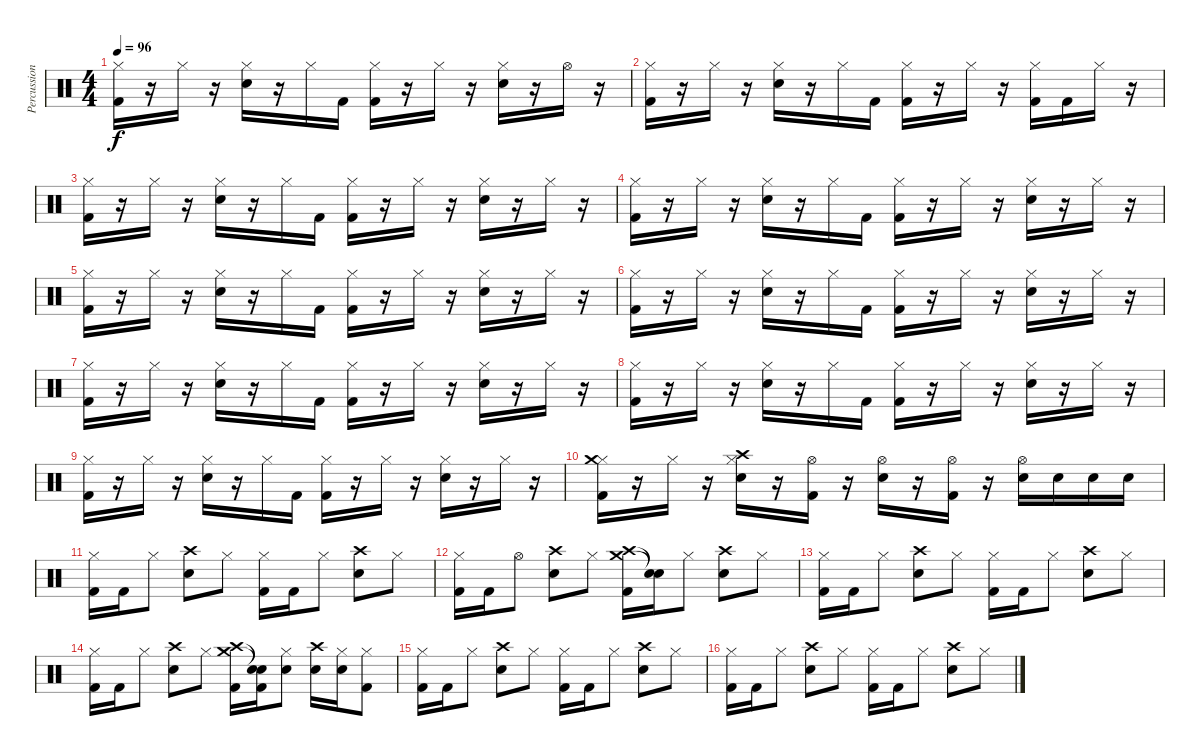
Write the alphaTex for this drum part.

\track ("Percussion" "Percussion") {instrument percussion}
\staff {score}
\articulation defaults
\ts (4 4)
\tempo 96
\clef neutral
\ks c
("Hi-Hat (closed)" "Kick (hit) 2").16{dy f} r.16 "Hi-Hat (closed)".16 r.16 ("Hi-Hat (closed)" "Snare (hit) 2").16 r.16 "Hi-Hat (closed)".16 "Kick (hit) 2".16 ("Hi-Hat (closed)" "Kick (hit) 2").16 r.16 "Hi-Hat (closed)".16 r.16 ("Hi-Hat (closed)" "Snare (hit) 2").16 r.16 "Hi-Hat (open)".16 r.16 |
("Hi-Hat (closed)" "Kick (hit) 2").16 r.16 "Hi-Hat (closed)".16 r.16 ("Hi-Hat (closed)" "Snare (hit) 2").16 r.16 "Hi-Hat (closed)".16 "Kick (hit) 2".16 ("Hi-Hat (closed)" "Kick (hit) 2").16 r.16 "Hi-Hat (closed)".16 r.16 ("Hi-Hat (closed)" "Kick (hit) 2").16 "Kick (hit) 2".16 "Hi-Hat (closed)".16 r.16 |
("Hi-Hat (closed)" "Kick (hit) 2").16 r.16 "Hi-Hat (closed)".16 r.16 ("Hi-Hat (closed)" "Snare (hit) 2").16 r.16 "Hi-Hat (closed)".16 "Kick (hit) 2".16 ("Hi-Hat (closed)" "Kick (hit) 2").16 r.16 "Hi-Hat (closed)".16 r.16 ("Hi-Hat (closed)" "Snare (hit) 2").16 r.16 "Hi-Hat (closed)".16 r.16 |
("Hi-Hat (closed)" "Kick (hit) 2").16 r.16 "Hi-Hat (closed)".16 r.16 ("Hi-Hat (closed)" "Snare (hit) 2").16 r.16 "Hi-Hat (closed)".16 "Kick (hit) 2".16 ("Hi-Hat (closed)" "Kick (hit) 2").16 r.16 "Hi-Hat (closed)".16 r.16 ("Hi-Hat (closed)" "Snare (hit) 2").16 r.16 "Hi-Hat (closed)".16 r.16 |
("Hi-Hat (closed)" "Kick (hit) 2").16 r.16 "Hi-Hat (closed)".16 r.16 ("Hi-Hat (closed)" "Snare (hit) 2").16 r.16 "Hi-Hat (closed)".16 "Kick (hit) 2".16 ("Hi-Hat (closed)" "Kick (hit) 2").16 r.16 "Hi-Hat (closed)".16 r.16 ("Hi-Hat (closed)" "Snare (hit) 2").16 r.16 "Hi-Hat (closed)".16 r.16 |
("Hi-Hat (closed)" "Kick (hit) 2").16 r.16 "Hi-Hat (closed)".16 r.16 ("Hi-Hat (closed)" "Snare (hit) 2").16 r.16 "Hi-Hat (closed)".16 "Kick (hit) 2".16 ("Hi-Hat (closed)" "Kick (hit) 2").16 r.16 "Hi-Hat (closed)".16 r.16 ("Hi-Hat (closed)" "Snare (hit) 2").16 r.16 "Hi-Hat (closed)".16 r.16 |
("Hi-Hat (closed)" "Kick (hit) 2").16 r.16 "Hi-Hat (closed)".16 r.16 ("Hi-Hat (closed)" "Snare (hit) 2").16 r.16 "Hi-Hat (closed)".16 "Kick (hit) 2".16 ("Hi-Hat (closed)" "Kick (hit) 2").16 r.16 "Hi-Hat (closed)".16 r.16 ("Hi-Hat (closed)" "Snare (hit) 2").16 r.16 "Hi-Hat (closed)".16 r.16 |
("Hi-Hat (closed)" "Kick (hit) 2").16 r.16 "Hi-Hat (closed)".16 r.16 ("Hi-Hat (closed)" "Snare (hit) 2").16 r.16 "Hi-Hat (closed)".16 "Kick (hit) 2".16 ("Hi-Hat (closed)" "Kick (hit) 2").16 r.16 "Hi-Hat (closed)".16 r.16 ("Hi-Hat (closed)" "Snare (hit) 2").16 r.16 "Hi-Hat (closed)".16 r.16 |
("Hi-Hat (closed)" "Kick (hit) 2").16 r.16 "Hi-Hat (closed)".16 r.16 ("Hi-Hat (closed)" "Snare (hit) 2").16 r.16 "Hi-Hat (closed)".16 "Kick (hit) 2".16 ("Hi-Hat (closed)" "Kick (hit) 2").16 r.16 "Hi-Hat (closed)".16 r.16 ("Hi-Hat (closed)" "Snare (hit) 2").16 r.16 "Hi-Hat (closed)".16 r.16 |
("Hi-Hat (closed)" "Crash medium (hit)" "Kick (hit) 2").16 r.16 "Hi-Hat (closed)".16 r.16 ("Hi-Hat (closed)" "Crash high (hit)" "Snare (hit) 2").16 r.16 ("Hi-Hat (open)" "Kick (hit) 2").16 r.16 ("Hi-Hat (open)" "Snare (hit) 2").16 r.16 ("Hi-Hat (open)" "Kick (hit) 2").16 r.16 ("Hi-Hat (open)" "Snare (hit) 2").16 "Snare (hit) 2".16 "Snare (hit) 2".16 "Snare (hit) 2".16 |
("Hi-Hat (closed)" "Kick (hit) 2").16 "Kick (hit) 2".16 "Hi-Hat (closed)".8 ("Crash high (hit)" "Snare (hit) 2").8 "Hi-Hat (closed)".8 ("Hi-Hat (closed)" "Kick (hit) 2").16 "Kick (hit) 2".16 "Hi-Hat (closed)".8 ("Crash high (hit)" "Snare (hit) 2").8 "Hi-Hat (closed)".8 |
("Hi-Hat (closed)" "Kick (hit) 2").16 "Kick (hit) 2".16 "Hi-Hat (open)".8 ("Crash high (hit)" "Snare (hit) 2").8 "Hi-Hat (closed)".8 ("Crash high (hit)" "Crash medium (hit)" "Kick (hit) 2").16 ("Snare (hit)"{t} "Snare (hit)"{t}).16 "Hi-Hat (closed)".8 ("Crash high (hit)" "Snare (hit) 2").8 "Hi-Hat (closed)".8 |
("Hi-Hat (closed)" "Kick (hit) 2").16 "Kick (hit) 2".16 "Hi-Hat (closed)".8 ("Crash high (hit)" "Snare (hit) 2").8 "Hi-Hat (closed)".8 ("Hi-Hat (closed)" "Kick (hit) 2").16 "Kick (hit) 2".16 "Hi-Hat (closed)".8 ("Crash high (hit)" "Snare (hit) 2").8 "Hi-Hat (closed)".8 |
("Hi-Hat (closed)" "Kick (hit) 2").16 "Kick (hit) 2".16 "Hi-Hat (closed)".8 ("Crash high (hit)" "Snare (hit) 2").8 "Hi-Hat (closed)".8 ("Crash high (hit)" "Crash medium (hit)" "Kick (hit) 2").16 ("Snare (hit)"{t} "Snare (hit)"{t} "Kick (hit) 2").16 ("Hi-Hat (closed)" "Snare (hit) 2").8 ("Crash high (hit)" "Snare (hit) 2").16 ("Hi-Hat (closed)" "Snare (hit) 2").16 ("Hi-Hat (closed)" "Kick (hit) 2").8 |
("Hi-Hat (closed)" "Kick (hit) 2").16 "Kick (hit) 2".16 "Hi-Hat (closed)".8 ("Crash high (hit)" "Snare (hit) 2").8 "Hi-Hat (closed)".8 ("Hi-Hat (closed)" "Kick (hit) 2").16 "Kick (hit) 2".16 "Hi-Hat (closed)".8 ("Crash high (hit)" "Snare (hit) 2").8 "Hi-Hat (closed)".8 |
("Hi-Hat (closed)" "Kick (hit) 2").16 "Kick (hit) 2".16 "Hi-Hat (closed)".8 ("Crash high (hit)" "Snare (hit) 2").8 "Hi-Hat (closed)".8 ("Hi-Hat (closed)" "Kick (hit) 2").16 "Kick (hit) 2".16 "Hi-Hat (closed)".8 ("Crash high (hit)" "Snare (hit) 2").8 "Hi-Hat (closed)".8
